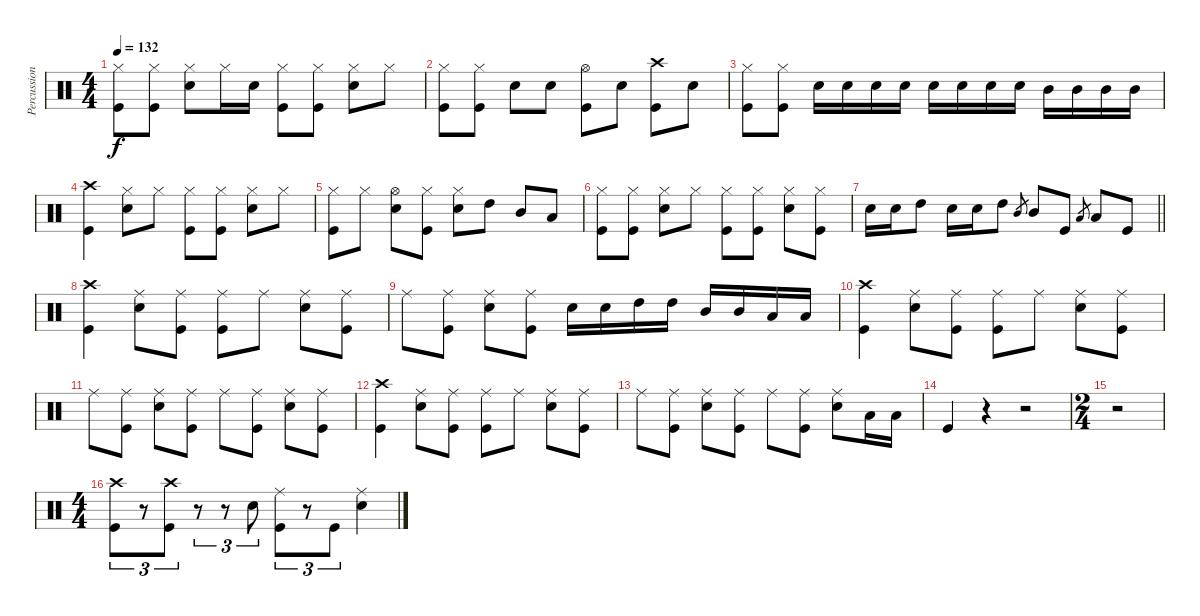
\track ("Percussion" "Percussion") {instrument percussion}
\staff {score}
\articulation defaults
\ts (4 4)
\tempo 132
\clef neutral
\ks c
("Hi-Hat (closed)" "Kick (hit)").8{dy f} ("Kick (hit)" "Hi-Hat (closed)").8 ("Hi-Hat (closed)" "Snare (hit) 2").8 "Hi-Hat (closed)".16 "Snare (hit) 2".16 ("Kick (hit)" "Hi-Hat (closed)").8 ("Hi-Hat (closed)" "Kick (hit)").8 ("Snare (hit) 2" "Hi-Hat (closed)").8 "Hi-Hat (closed)".8 |
("Hi-Hat (closed)" "Kick (hit)").8 ("Kick (hit)" "Hi-Hat (closed)").8 "Snare (hit) 2".8 "Snare (hit) 2".8 ("Hi-Hat (open)" "Kick (hit)").8 "Snare (hit) 2".8 ("Crash high (hit)" "Kick (hit)").8 "Snare (hit) 2".8 |
("Hi-Hat (closed)" "Kick (hit)").8 ("Hi-Hat (closed)" "Kick (hit)").8 "Snare (hit) 2".16 "Snare (hit) 2".16 "Snare (hit) 2".16 "Snare (hit) 2".16 "Snare (hit) 2".16 "Snare (hit) 2".16 "Snare (hit) 2".16 "Snare (hit) 2".16 "Mid Tom (hit)".16 "Mid Tom (hit)".16 "Mid Tom (hit)".16 "Mid Tom (hit)".16 |
("Crash high (hit)" "Kick (hit)").4 ("Snare (hit) 2" "Hi-Hat (closed)").8 "Hi-Hat (closed)".8 ("Hi-Hat (closed)" "Kick (hit)").8 ("Kick (hit)" "Hi-Hat (closed)").8 ("Hi-Hat (closed)" "Snare (hit) 2").8 "Hi-Hat (closed)".8 |
("Hi-Hat (closed)" "Kick (hit)").8 "Hi-Hat (closed)".8 ("Hi-Hat (open)" "Snare (hit) 2").8 ("Hi-Hat (closed)" "Kick (hit)").8 ("Hi-Hat (closed)" "Snare (hit) 2").8 "High Tom (hit)".8 "Mid Tom (hit)".8 "Low Tom (hit)".8 |
("Hi-Hat (closed)" "Kick (hit)").8 ("Hi-Hat (closed)" "Kick (hit)").8 ("Hi-Hat (closed)" "Snare (hit) 2").8 "Hi-Hat (closed)".8 ("Hi-Hat (closed)" "Kick (hit)").8 ("Hi-Hat (closed)" "Kick (hit)").8 ("Hi-Hat (closed)" "Snare (hit) 2").8 ("Hi-Hat (closed)" "Kick (hit)").8 |
\barLineRight lightlight "Snare (hit) 2".16 "Snare (hit) 2".16 "High Tom (hit)".8 "Snare (hit) 2".16 "Snare (hit) 2".16 "High Tom (hit)".8 "Mid Tom (hit)".8{gr} "Mid Tom (hit)".8 "Kick (hit)".8 "Low Tom (hit)".8{gr} "Low Tom (hit)".8 "Kick (hit)".8
|
("Crash high (hit)" "Kick (hit)").4 ("Ride (middle)" "Snare (hit) 2").8 ("Ride (middle)" "Kick (hit)").8 ("Ride (middle)" "Kick (hit)").8 "Ride (middle)".8 ("Ride (middle)" "Snare (hit) 2").8 ("Kick (hit)" "Ride (middle)").8 |
"Ride (middle)".8 ("Ride (middle)" "Kick (hit)").8 ("Snare (hit) 2" "Ride (middle)").8 ("Ride (middle)" "Kick (hit)").8 "Snare (hit) 2".16 "Snare (hit) 2".16 "High Tom (hit)".16 "High Tom (hit)".16 "Mid Tom (hit)".16 "Mid Tom (hit)".16 "Low Tom (hit)".16 "Low Tom (hit)".16 |
("Kick (hit)" "Crash high (hit)").4 ("Ride (middle)" "Snare (hit) 2").8 ("Ride (middle)" "Kick (hit)").8 ("Ride (middle)" "Kick (hit)").8 "Ride (middle)".8 ("Ride (middle)" "Snare (hit) 2").8 ("Ride (middle)" "Kick (hit)").8 |
"Ride (middle)".8 ("Ride (middle)" "Kick (hit)").8 ("Ride (middle)" "Snare (hit) 2").8 ("Ride (middle)" "Kick (hit)").8 "Ride (middle)".8 ("Ride (middle)" "Kick (hit)").8 ("Ride (middle)" "Snare (hit) 2").8 ("Ride (middle)" "Kick (hit)").8 |
("Kick (hit)" "Crash high (hit)").4 ("Ride (middle)" "Snare (hit) 2").8 ("Ride (middle)" "Kick (hit)").8 ("Ride (middle)" "Kick (hit)").8 "Ride (middle)".8 ("Ride (middle)" "Snare (hit) 2").8 ("Ride (middle)" "Kick (hit)").8 |
"Ride (middle)".8 ("Ride (middle)" "Kick (hit)").8 ("Ride (middle)" "Snare (hit) 2").8 ("Ride (middle)" "Kick (hit)").8 "Ride (middle)".8 ("Ride (middle)" "Kick (hit)").8 ("Ride (middle)" "Snare (hit) 2").8 "Low Tom (hit)".16 "Low Tom (hit)".16 |
"Kick (hit)".4 r.4 r.2 |
\ts (2 4)
r.2 |
\ts (4 4)
("Crash high (hit)" "Kick (hit)").8{tu (3 2)} r.8{tu (3 2)} ("Crash high (hit)" "Kick (hit)").8{tu (3 2)} r.8{tu (3 2)} r.8{tu (3 2)} "Snare (hit) 2".8{tu (3 2)} ("Ride (middle)" "Kick (hit)").8{tu (3 2)} r.8{tu (3 2)} "Kick (hit)".8{tu (3 2)} ("Snare (hit) 2" "Ride (middle)").4
